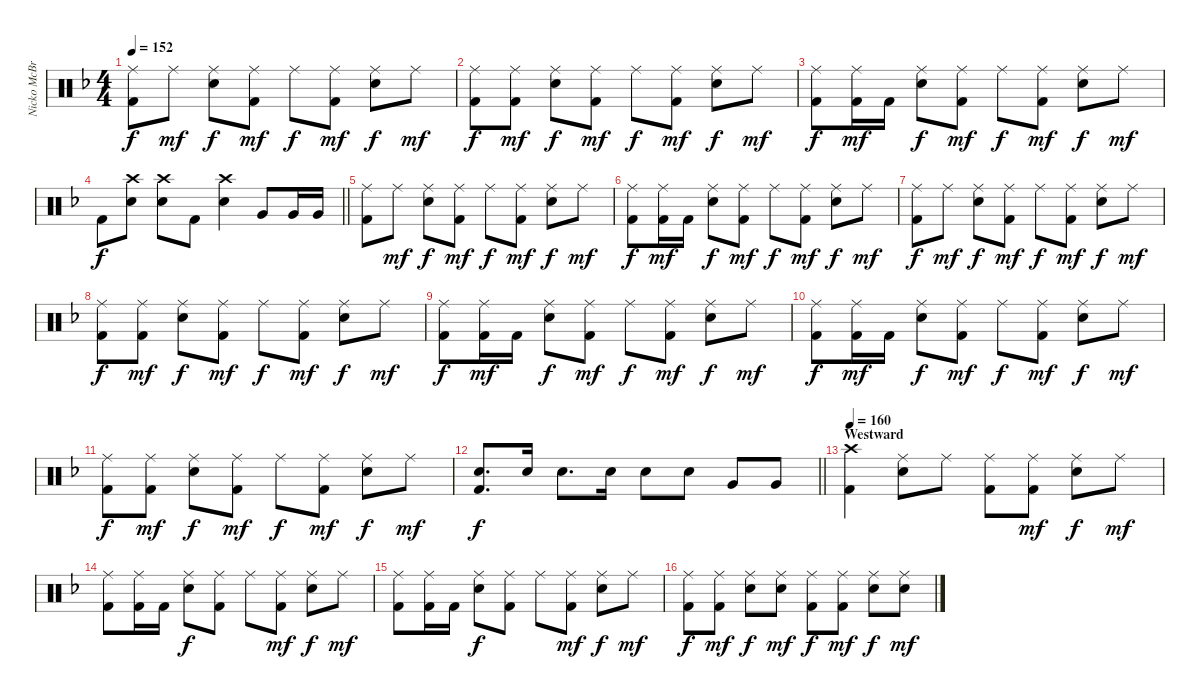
\track ("Nicko McBrain" "Nicko McBr") {instrument percussion}
\staff {score}
\articulation defaults
\ts (4 4)
\tempo 152
\clef neutral
\ks f
("Ride (middle)" "Kick (hit) 2").8{dy f} "Ride (middle)".8{dy mf} ("Ride (middle)" "Electric Snare (hit)").8{dy f} ("Ride (middle)" "Kick (hit) 2").8{dy mf} "Ride (middle)".8{dy f} ("Ride (middle)" "Kick (hit) 2").8{dy mf} ("Ride (middle)" "Electric Snare (hit)").8{dy f} "Ride (middle)".8{dy mf} |
("Ride (middle)" "Kick (hit) 2").8{dy f} ("Ride (middle)" "Kick (hit) 2").8{dy mf} ("Ride (middle)" "Electric Snare (hit)").8{dy f} ("Ride (middle)" "Kick (hit) 2").8{dy mf} "Ride (middle)".8{dy f} ("Ride (middle)" "Kick (hit) 2").8{dy mf} ("Ride (middle)" "Electric Snare (hit)").8{dy f} "Ride (middle)".8{dy mf} |
("Ride (middle)" "Kick (hit) 2").8{dy f} ("Ride (middle)" "Kick (hit) 2").16{dy mf} "Kick (hit) 2".16 ("Ride (middle)" "Electric Snare (hit)").8{dy f} ("Ride (middle)" "Kick (hit) 2").8{dy mf} "Ride (middle)".8{dy f} ("Ride (middle)" "Kick (hit) 2").8{dy mf} ("Ride (middle)" "Electric Snare (hit)").8{dy f} "Ride (middle)".8{dy mf} |
\barLineRight lightlight "Kick (hit) 2".8{dy f}
("Crash high (hit)" "Electric Snare (hit)").8 ("Crash high (hit)" "Electric Snare (hit)").8 "Kick (hit) 2".8 ("Crash high (hit)" "Electric Snare (hit)").4 "Very Low Tom (hit)".8 "Very Low Tom (hit)".16 "Very Low Tom (hit)".16 |
("Ride (middle)" "Kick (hit) 2").8 "Ride (middle)".8{dy mf} ("Ride (middle)" "Electric Snare (hit)").8{dy f} ("Ride (middle)" "Kick (hit) 2").8{dy mf} "Ride (middle)".8{dy f} ("Ride (middle)" "Kick (hit) 2").8{dy mf} ("Ride (middle)" "Electric Snare (hit)").8{dy f} "Ride (middle)".8{dy mf} |
("Ride (middle)" "Kick (hit) 2").8{dy f} ("Ride (middle)" "Kick (hit) 2").16{dy mf} "Kick (hit) 2".16 ("Ride (middle)" "Electric Snare (hit)").8{dy f} ("Ride (middle)" "Kick (hit) 2").8{dy mf} "Ride (middle)".8{dy f} ("Ride (middle)" "Kick (hit) 2").8{dy mf} ("Ride (middle)" "Electric Snare (hit)").8{dy f} "Ride (middle)".8{dy mf} |
("Ride (middle)" "Kick (hit) 2").8{dy f} "Ride (middle)".8{dy mf} ("Ride (middle)" "Electric Snare (hit)").8{dy f} ("Ride (middle)" "Kick (hit) 2").8{dy mf} "Ride (middle)".8{dy f} ("Ride (middle)" "Kick (hit) 2").8{dy mf} ("Ride (middle)" "Electric Snare (hit)").8{dy f} "Ride (middle)".8{dy mf} |
("Ride (middle)" "Kick (hit) 2").8{dy f} ("Ride (middle)" "Kick (hit) 2").8{dy mf} ("Ride (middle)" "Electric Snare (hit)").8{dy f} ("Ride (middle)" "Kick (hit) 2").8{dy mf} "Ride (middle)".8{dy f} ("Ride (middle)" "Kick (hit) 2").8{dy mf} ("Ride (middle)" "Electric Snare (hit)").8{dy f} "Ride (middle)".8{dy mf} |
("Ride (middle)" "Kick (hit) 2").8{dy f} ("Ride (middle)" "Kick (hit) 2").16{dy mf} "Kick (hit) 2".16 ("Ride (middle)" "Electric Snare (hit)").8{dy f} ("Ride (middle)" "Kick (hit) 2").8{dy mf} "Ride (middle)".8{dy f} ("Ride (middle)" "Kick (hit) 2").8{dy mf} ("Ride (middle)" "Electric Snare (hit)").8{dy f} "Ride (middle)".8{dy mf} |
("Ride (middle)" "Kick (hit) 2").8{dy f} ("Ride (middle)" "Kick (hit) 2").16{dy mf} "Kick (hit) 2".16 ("Ride (middle)" "Electric Snare (hit)").8{dy f} ("Ride (middle)" "Kick (hit) 2").8{dy mf} "Ride (middle)".8{dy f} ("Ride (middle)" "Kick (hit) 2").8{dy mf} ("Ride (middle)" "Electric Snare (hit)").8{dy f} "Ride (middle)".8{dy mf} |
("Ride (middle)" "Kick (hit) 2").8{dy f} ("Ride (middle)" "Kick (hit) 2").8{dy mf} ("Ride (middle)" "Electric Snare (hit)").8{dy f} ("Ride (middle)" "Kick (hit) 2").8{dy mf} "Ride (middle)".8{dy f} ("Ride (middle)" "Kick (hit) 2").8{dy mf} ("Ride (middle)" "Electric Snare (hit)").8{dy f} "Ride (middle)".8{dy mf} |
\barLineRight lightlight
("Electric Snare (hit)" "Kick (hit) 2").8{d dy f} "Electric Snare (hit)".16 "Electric Snare (hit)".8{d} "Electric Snare (hit)".16 "Electric Snare (hit)".8 "Electric Snare (hit)".8 "Very Low Tom (hit)".8 "Very Low Tom (hit)".8 |
\section ("" "Westward")
\tempo 160
("Crash high (hit)" "Kick (hit) 2").4 ("Ride (middle)" "Electric Snare (hit)").8 "Ride (middle)".8 ("Ride (middle)" "Kick (hit) 2").8 ("Ride (middle)" "Kick (hit) 2").8{dy mf} ("Ride (middle)" "Electric Snare (hit)").8{dy f} "Ride (middle)".8{dy mf} |
("Ride (middle)" "Kick (hit) 2").8 ("Ride (middle)" "Kick (hit) 2").16 "Kick (hit) 2".16 ("Ride (middle)" "Electric Snare (hit)").8{dy f} ("Ride (middle)" "Kick (hit) 2").8 "Ride (middle)".8 ("Ride (middle)" "Kick (hit) 2").8{dy mf} ("Ride (middle)" "Electric Snare (hit)").8{dy f} "Ride (middle)".8{dy mf} |
("Ride (middle)" "Kick (hit) 2").8 ("Ride (middle)" "Kick (hit) 2").16 "Kick (hit) 2".16 ("Ride (middle)" "Electric Snare (hit)").8{dy f} ("Ride (middle)" "Kick (hit) 2").8 "Ride (middle)".8 ("Ride (middle)" "Kick (hit) 2").8{dy mf} ("Ride (middle)" "Electric Snare (hit)").8{dy f} "Ride (middle)".8{dy mf} |
("Ride (middle)" "Kick (hit) 2").8{dy f} ("Ride (middle)" "Kick (hit) 2").8{dy mf} ("Ride (middle)" "Electric Snare (hit)").8{dy f} ("Ride (middle)" "Electric Snare (hit)").8{dy mf} ("Ride (middle)" "Kick (hit) 2").8{dy f} ("Ride (middle)" "Kick (hit) 2").8{dy mf} ("Ride (middle)" "Electric Snare (hit)").8{dy f} ("Ride (middle)" "Electric Snare (hit)").8{dy mf}
